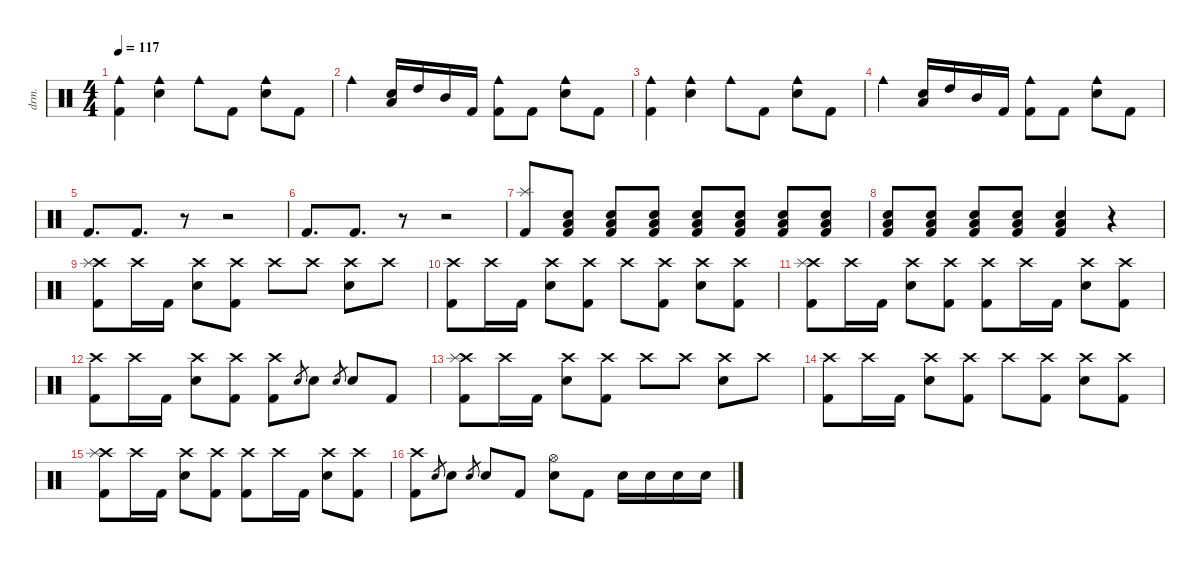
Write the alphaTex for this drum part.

\defaultSystemsLayout 4
\hideDynamics
\bracketExtendMode nobrackets
\track ("Drums" "drm.") {instrument percussion}
\staff {score}
\articulation defaults
\ts (4 4)
\tempo 117
\clef neutral
\ks c
("Cowbell medium (hit)" "Kick (hit) 2").4{dy mf beam Down} ("Cowbell medium (hit)" "Snare (hit) 2").4{beam Down} "Cowbell medium (hit)".8{beam Down} "Kick (hit) 2".8{beam Down} ("Cowbell medium (hit)" "Snare (hit) 2").8{beam Down} "Kick (hit) 2".8{beam Down} |
"Cowbell medium (hit)".4{beam Down} ("Snare (hit) 2" "Low Tom (hit)").16{beam Up} "High Tom (hit)".16{beam Up} "Mid Tom (hit)".16{beam Up} "Kick (hit) 2".16{beam Up} ("Cowbell medium (hit)" "Kick (hit) 2").8{beam Down} "Kick (hit) 2".8{beam Down} ("Cowbell medium (hit)" "Snare (hit) 2").8{beam Down} "Kick (hit) 2".8{beam Down} |
("Cowbell medium (hit)" "Kick (hit) 2").4{beam Down} ("Cowbell medium (hit)" "Snare (hit) 2").4{beam Down} "Cowbell medium (hit)".8{beam Down} "Kick (hit) 2".8{beam Down} ("Cowbell medium (hit)" "Snare (hit) 2").8{beam Down} "Kick (hit) 2".8{beam Down} |
"Cowbell medium (hit)".4{beam Down} ("Snare (hit) 2" "Low Tom (hit)").16{beam Up} "High Tom (hit)".16{beam Up} "Mid Tom (hit)".16{beam Up} "Kick (hit) 2".16{beam Up} ("Cowbell medium (hit)" "Kick (hit) 2").8{beam Down} "Kick (hit) 2".8{beam Down} ("Cowbell medium (hit)" "Snare (hit) 2").8{beam Down} "Kick (hit) 2".8{beam Down} |
"Kick (hit) 2".8{d beam Up} "Kick (hit) 2".8{d beam Up} r.8{beam Down} r.2{beam Down} |
"Kick (hit) 2".8{d beam Up} "Kick (hit) 2".8{d beam Up} r.8{beam Down} r.2{beam Down} |
("Kick (hit) 2" "Splash (hit)").8{beam Up} ("Snare (hit) 2" "Low Tom (hit)" "Kick (hit) 2").8{beam Up} ("Snare (hit) 2" "Low Tom (hit)" "Kick (hit) 2").8{beam Up} ("Snare (hit) 2" "Low Tom (hit)" "Kick (hit) 2").8{beam Up} ("Snare (hit) 2" "Low Tom (hit)" "Kick (hit) 2").8{beam Up} ("Snare (hit) 2" "Low Tom (hit)" "Kick (hit) 2").8{beam Up} ("Kick (hit) 2" "Snare (hit) 2" "Low Tom (hit)").8{beam Up} ("Kick (hit) 2" "Snare (hit) 2" "Low Tom (hit)").8{beam Up} |
("Kick (hit) 2" "Snare (hit) 2" "Low Tom (hit)").8{beam Up} ("Kick (hit) 2" "Snare (hit) 2" "Low Tom (hit)").8{beam Up} ("Kick (hit) 2" "Snare (hit) 2" "Low Tom (hit)").8{beam Up} ("Kick (hit) 2" "Snare (hit) 2" "Low Tom (hit)").8{beam Up} ("Snare (hit) 2" "Low Tom (hit)" "Kick (hit) 2").4{beam Up} r.4{beam Down} |
("Kick (hit) 2" "Crash high (hit)" "Splash (hit)").8{beam Down} "Crash high (hit)".16{beam Down} "Kick (hit) 2".16{beam Down} ("Snare (hit) 2" "Crash high (hit)").8{beam Down} ("Kick (hit) 2" "Crash high (hit)").8{beam Down} "Crash high (hit)".8{beam Down} "Crash high (hit)".8{beam Down} ("Snare (hit) 2" "Crash high (hit)").8{beam Down} "Crash high (hit)".8{beam Down} |
("Kick (hit) 2" "Crash high (hit)").8{beam Down} "Crash high (hit)".16{beam Down} "Kick (hit) 2".16{beam Down} ("Snare (hit) 2" "Crash high (hit)").8{beam Down} ("Kick (hit) 2" "Crash high (hit)").8{beam Down} "Crash high (hit)".8{beam Down} ("Kick (hit) 2" "Crash high (hit)").8{beam Down} ("Snare (hit) 2" "Crash high (hit)").8{beam Down} ("Kick (hit) 2" "Crash high (hit)").8{beam Down} |
("Kick (hit) 2" "Crash high (hit)" "Splash (hit)").8{beam Down} "Crash high (hit)".16{beam Down} "Kick (hit) 2".16{beam Down} ("Snare (hit) 2" "Crash high (hit)").8{beam Down} ("Kick (hit) 2" "Crash high (hit)").8{beam Down} ("Kick (hit) 2" "Crash high (hit)").8{beam Down} "Crash high (hit)".16{beam Down} "Kick (hit) 2".16{beam Down} ("Snare (hit) 2" "Crash high (hit)").8{beam Down} ("Kick (hit) 2" "Crash high (hit)").8{beam Down} |
("Kick (hit) 2" "Crash high (hit)").8{beam Down} "Crash high (hit)".16{beam Down} "Kick (hit) 2".16{beam Down} ("Snare (hit) 2" "Crash high (hit)").8{beam Down} ("Kick (hit) 2" "Crash high (hit)").8{beam Down} ("Kick (hit) 2" "Crash high (hit)").8{beam Down} "Snare (hit) 2".8{gr beam Up} "Snare (hit) 2".8{beam Down} "Snare (hit) 2".8{gr beam Up} "Snare (hit) 2".8{beam Up} "Kick (hit) 2".8{beam Up} |
("Kick (hit) 2" "Crash high (hit)" "Splash (hit)").8{beam Down} "Crash high (hit)".16{beam Down} "Kick (hit) 2".16{beam Down} ("Snare (hit) 2" "Crash high (hit)").8{beam Down} ("Kick (hit) 2" "Crash high (hit)").8{beam Down} "Crash high (hit)".8{beam Down} "Crash high (hit)".8{beam Down} ("Snare (hit) 2" "Crash high (hit)").8{beam Down} "Crash high (hit)".8{beam Down} |
("Kick (hit) 2" "Crash high (hit)").8{beam Down} "Crash high (hit)".16{beam Down} "Kick (hit) 2".16{beam Down} ("Snare (hit) 2" "Crash high (hit)").8{beam Down} ("Kick (hit) 2" "Crash high (hit)").8{beam Down} "Crash high (hit)".8{beam Down} ("Kick (hit) 2" "Crash high (hit)").8{beam Down} ("Snare (hit) 2" "Crash high (hit)").8{beam Down} ("Kick (hit) 2" "Crash high (hit)").8{beam Down} |
("Kick (hit) 2" "Crash high (hit)" "Splash (hit)").8{beam Down} "Crash high (hit)".16{beam Down} "Kick (hit) 2".16{beam Down} ("Snare (hit) 2" "Crash high (hit)").8{beam Down} ("Kick (hit) 2" "Crash high (hit)").8{beam Down} ("Kick (hit) 2" "Crash high (hit)").8{beam Down} "Crash high (hit)".16{beam Down} "Kick (hit) 2".16{beam Down} ("Snare (hit) 2" "Crash high (hit)").8{beam Down} ("Kick (hit) 2" "Crash high (hit)").8{beam Down} |
("Kick (hit) 2" "Crash high (hit)").8{beam Down} "Snare (hit) 2".8{gr beam Up} "Snare (hit) 2".8{beam Down} "Snare (hit) 2".8{gr beam Up} "Snare (hit) 2".8{beam Up} "Kick (hit) 2".8{beam Up} ("Hi-Hat (open)" "Snare (hit) 2").8{beam Down} "Kick (hit) 2".8{beam Down} "Snare (hit) 2".16{beam Down} "Snare (hit) 2".16{beam Down} "Snare (hit) 2".16{beam Down} "Snare (hit) 2".16{beam Down}
